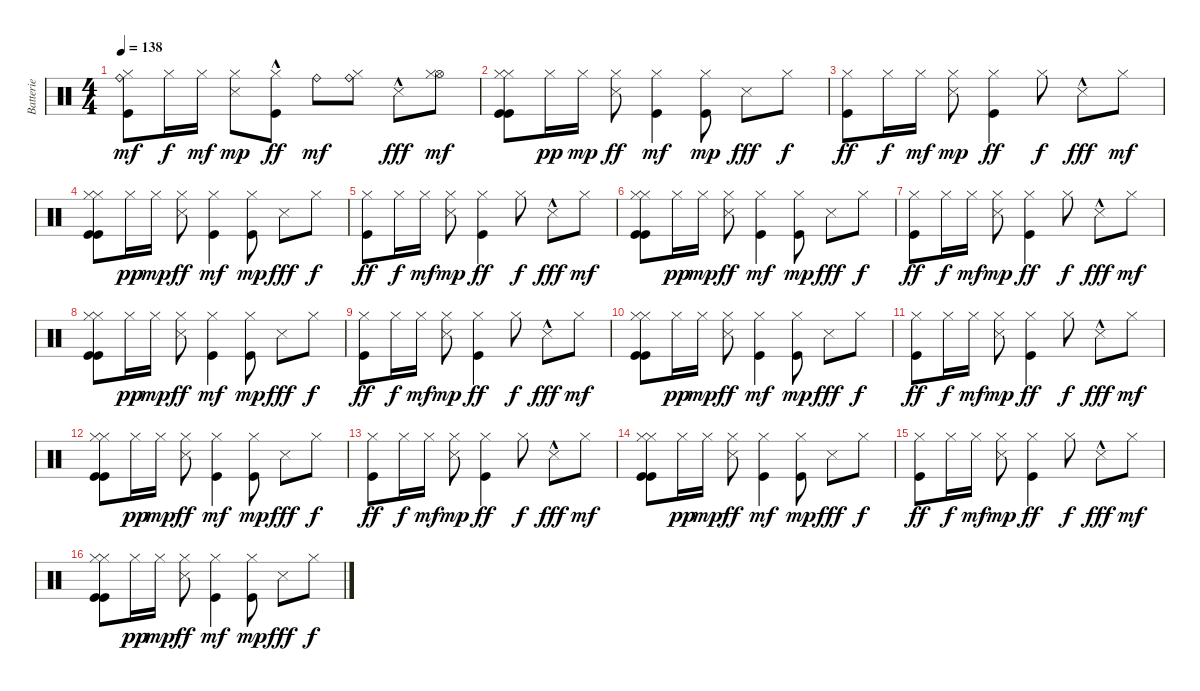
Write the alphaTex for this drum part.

\track ("Batterie" "Batterie") {instrument percussion}
\staff {score}
\articulation defaults
\ts (4 4)
\tempo 138
\clef neutral
\ks c
("Kick (hit)" "Hi-Hat (closed)" "Ride (bell)").8{dy mf} "Hi-Hat (closed)".16{dy f} "Hi-Hat (closed)".16{dy mf} ("Snare (side stick) 3" "Hi-Hat (closed)").8{dy mp} ("Kick (hit)"{hac} "Hi-Hat (closed)").8{dy ff} "Ride (bell)".8{dy mf} ("Hi-Hat (closed)" "Ride (bell)").8 "Snare (side stick) 3"{hac}.8{dy fff} ("Hi-Hat (open)" "Hi-Hat (closed)").8{dy mf} |
("Kick (hit)" "Kick (hit)" "Hi-Hat (closed)" "Hi-Hat (closed)").8 "Hi-Hat (closed)".16{dy pp} "Hi-Hat (closed)".16{dy mp} ("Snare (side stick) 3" "Hi-Hat (closed)").8{dy ff} ("Kick (hit)" "Hi-Hat (closed)").4{dy mf} ("Kick (hit)" "Hi-Hat (closed)").8{dy mp} "Snare (side stick) 3".8{dy fff} "Hi-Hat (closed)".8{dy f} |
("Kick (hit)" "Hi-Hat (closed)").8{dy ff} "Hi-Hat (closed)".16{dy f} "Hi-Hat (closed)".16{dy mf} ("Snare (side stick) 3" "Hi-Hat (closed)").8{dy mp} ("Kick (hit)" "Hi-Hat (closed)").4{dy ff} "Hi-Hat (closed)".8{dy f} "Snare (side stick) 3"{hac}.8{dy fff} "Hi-Hat (closed)".8{dy mf} |
("Kick (hit)" "Kick (hit)" "Hi-Hat (closed)" "Hi-Hat (closed)").8 "Hi-Hat (closed)".16{dy pp} "Hi-Hat (closed)".16{dy mp} ("Snare (side stick) 3" "Hi-Hat (closed)").8{dy ff} ("Kick (hit)" "Hi-Hat (closed)").4{dy mf} ("Kick (hit)" "Hi-Hat (closed)").8{dy mp} "Snare (side stick) 3".8{dy fff} "Hi-Hat (closed)".8{dy f} |
("Kick (hit)" "Hi-Hat (closed)").8{dy ff} "Hi-Hat (closed)".16{dy f} "Hi-Hat (closed)".16{dy mf} ("Snare (side stick) 3" "Hi-Hat (closed)").8{dy mp} ("Kick (hit)" "Hi-Hat (closed)").4{dy ff} "Hi-Hat (closed)".8{dy f} "Snare (side stick) 3"{hac}.8{dy fff} "Hi-Hat (closed)".8{dy mf} |
("Kick (hit)" "Kick (hit)" "Hi-Hat (closed)" "Hi-Hat (closed)").8 "Hi-Hat (closed)".16{dy pp} "Hi-Hat (closed)".16{dy mp} ("Snare (side stick) 3" "Hi-Hat (closed)").8{dy ff} ("Kick (hit)" "Hi-Hat (closed)").4{dy mf} ("Kick (hit)" "Hi-Hat (closed)").8{dy mp} "Snare (side stick) 3".8{dy fff} "Hi-Hat (closed)".8{dy f} |
("Kick (hit)" "Hi-Hat (closed)").8{dy ff} "Hi-Hat (closed)".16{dy f} "Hi-Hat (closed)".16{dy mf} ("Snare (side stick) 3" "Hi-Hat (closed)").8{dy mp} ("Kick (hit)" "Hi-Hat (closed)").4{dy ff} "Hi-Hat (closed)".8{dy f} "Snare (side stick) 3"{hac}.8{dy fff} "Hi-Hat (closed)".8{dy mf} |
("Kick (hit)" "Kick (hit)" "Hi-Hat (closed)" "Hi-Hat (closed)").8 "Hi-Hat (closed)".16{dy pp} "Hi-Hat (closed)".16{dy mp} ("Snare (side stick) 3" "Hi-Hat (closed)").8{dy ff} ("Kick (hit)" "Hi-Hat (closed)").4{dy mf} ("Kick (hit)" "Hi-Hat (closed)").8{dy mp} "Snare (side stick) 3".8{dy fff} "Hi-Hat (closed)".8{dy f} |
("Kick (hit)" "Hi-Hat (closed)").8{dy ff} "Hi-Hat (closed)".16{dy f} "Hi-Hat (closed)".16{dy mf} ("Snare (side stick) 3" "Hi-Hat (closed)").8{dy mp} ("Kick (hit)" "Hi-Hat (closed)").4{dy ff} "Hi-Hat (closed)".8{dy f} "Snare (side stick) 3"{hac}.8{dy fff} "Hi-Hat (closed)".8{dy mf} |
("Kick (hit)" "Kick (hit)" "Hi-Hat (closed)" "Hi-Hat (closed)").8 "Hi-Hat (closed)".16{dy pp} "Hi-Hat (closed)".16{dy mp} ("Snare (side stick) 3" "Hi-Hat (closed)").8{dy ff} ("Kick (hit)" "Hi-Hat (closed)").4{dy mf} ("Kick (hit)" "Hi-Hat (closed)").8{dy mp} "Snare (side stick) 3".8{dy fff} "Hi-Hat (closed)".8{dy f} |
("Kick (hit)" "Hi-Hat (closed)").8{dy ff} "Hi-Hat (closed)".16{dy f} "Hi-Hat (closed)".16{dy mf} ("Snare (side stick) 3" "Hi-Hat (closed)").8{dy mp} ("Kick (hit)" "Hi-Hat (closed)").4{dy ff} "Hi-Hat (closed)".8{dy f} "Snare (side stick) 3"{hac}.8{dy fff} "Hi-Hat (closed)".8{dy mf} |
("Kick (hit)" "Kick (hit)" "Hi-Hat (closed)" "Hi-Hat (closed)").8 "Hi-Hat (closed)".16{dy pp} "Hi-Hat (closed)".16{dy mp} ("Snare (side stick) 3" "Hi-Hat (closed)").8{dy ff} ("Kick (hit)" "Hi-Hat (closed)").4{dy mf} ("Kick (hit)" "Hi-Hat (closed)").8{dy mp} "Snare (side stick) 3".8{dy fff} "Hi-Hat (closed)".8{dy f} |
("Kick (hit)" "Hi-Hat (closed)").8{dy ff} "Hi-Hat (closed)".16{dy f} "Hi-Hat (closed)".16{dy mf} ("Snare (side stick) 3" "Hi-Hat (closed)").8{dy mp} ("Kick (hit)" "Hi-Hat (closed)").4{dy ff} "Hi-Hat (closed)".8{dy f} "Snare (side stick) 3"{hac}.8{dy fff} "Hi-Hat (closed)".8{dy mf} |
("Kick (hit)" "Kick (hit)" "Hi-Hat (closed)" "Hi-Hat (closed)").8 "Hi-Hat (closed)".16{dy pp} "Hi-Hat (closed)".16{dy mp} ("Snare (side stick) 3" "Hi-Hat (closed)").8{dy ff} ("Kick (hit)" "Hi-Hat (closed)").4{dy mf} ("Kick (hit)" "Hi-Hat (closed)").8{dy mp} "Snare (side stick) 3".8{dy fff} "Hi-Hat (closed)".8{dy f} |
("Kick (hit)" "Hi-Hat (closed)").8{dy ff} "Hi-Hat (closed)".16{dy f} "Hi-Hat (closed)".16{dy mf} ("Snare (side stick) 3" "Hi-Hat (closed)").8{dy mp} ("Kick (hit)" "Hi-Hat (closed)").4{dy ff} "Hi-Hat (closed)".8{dy f} "Snare (side stick) 3"{hac}.8{dy fff} "Hi-Hat (closed)".8{dy mf} |
("Kick (hit)" "Kick (hit)" "Hi-Hat (closed)" "Hi-Hat (closed)").8 "Hi-Hat (closed)".16{dy pp} "Hi-Hat (closed)".16{dy mp} ("Snare (side stick) 3" "Hi-Hat (closed)").8{dy ff} ("Kick (hit)" "Hi-Hat (closed)").4{dy mf} ("Kick (hit)" "Hi-Hat (closed)").8{dy mp} "Snare (side stick) 3".8{dy fff} "Hi-Hat (closed)".8{dy f}
